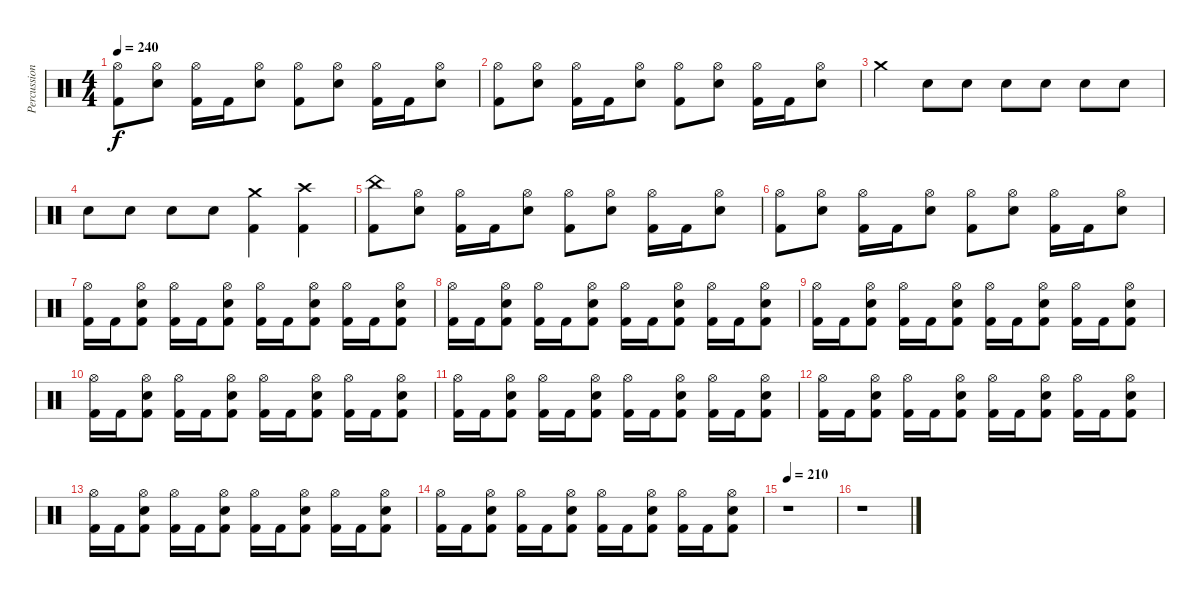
\track ("Percussion" "Percussion") {instrument percussion}
\staff {score}
\articulation defaults
\ts (4 4)
\tempo 240
\clef neutral
\ks c
("Hi-Hat (open)" "Kick (hit) 2").8{dy f} ("Hi-Hat (open)" "Electric Snare (hit)").8 ("Hi-Hat (open)" "Kick (hit) 2").16 "Kick (hit) 2".16 ("Hi-Hat (open)" "Electric Snare (hit)").8 ("Hi-Hat (open)" "Kick (hit) 2").8 ("Hi-Hat (open)" "Electric Snare (hit)").8 ("Hi-Hat (open)" "Kick (hit) 2").16 "Kick (hit) 2".16 ("Hi-Hat (open)" "Electric Snare (hit)").8 |
("Hi-Hat (open)" "Kick (hit) 2").8 ("Hi-Hat (open)" "Electric Snare (hit)").8 ("Hi-Hat (open)" "Kick (hit) 2").16 "Kick (hit) 2".16 ("Hi-Hat (open)" "Electric Snare (hit)").8 ("Hi-Hat (open)" "Kick (hit) 2").8 ("Hi-Hat (open)" "Electric Snare (hit)").8 ("Hi-Hat (open)" "Kick (hit) 2").16 "Kick (hit) 2".16 ("Hi-Hat (open)" "Electric Snare (hit)").8 |
"Crash medium (hit)".4 "Electric Snare (hit)".8 "Electric Snare (hit)".8 "Electric Snare (hit)".8 "Electric Snare (hit)".8 "Electric Snare (hit)".8 "Electric Snare (hit)".8 |
"Electric Snare (hit)".8 "Electric Snare (hit)".8 "Electric Snare (hit)".8 "Electric Snare (hit)".8 ("Crash medium (hit)" "Kick (hit) 2").4 ("Crash high (hit)" "Kick (hit) 2").4 |
("China (hit)" "Kick (hit) 2").8 ("Hi-Hat (open)" "Electric Snare (hit)").8 ("Hi-Hat (open)" "Kick (hit) 2").16 "Kick (hit) 2".16 ("Hi-Hat (open)" "Electric Snare (hit)").8 ("Hi-Hat (open)" "Kick (hit) 2").8 ("Hi-Hat (open)" "Electric Snare (hit)").8 ("Hi-Hat (open)" "Kick (hit) 2").16 "Kick (hit) 2".16 ("Hi-Hat (open)" "Electric Snare (hit)").8 |
("Hi-Hat (open)" "Kick (hit) 2").8 ("Hi-Hat (open)" "Electric Snare (hit)").8 ("Hi-Hat (open)" "Kick (hit) 2").16 "Kick (hit) 2".16 ("Hi-Hat (open)" "Electric Snare (hit)").8 ("Hi-Hat (open)" "Kick (hit) 2").8 ("Hi-Hat (open)" "Electric Snare (hit)").8 ("Hi-Hat (open)" "Kick (hit) 2").16 "Kick (hit) 2".16 ("Hi-Hat (open)" "Electric Snare (hit)").8 |
("Hi-Hat (open)" "Kick (hit) 2").16 "Kick (hit) 2".16 ("Hi-Hat (open)" "Electric Snare (hit)" "Kick (hit) 2").8 ("Hi-Hat (open)" "Kick (hit) 2").16 "Kick (hit) 2".16 ("Hi-Hat (open)" "Electric Snare (hit)" "Kick (hit) 2").8 ("Hi-Hat (open)" "Kick (hit) 2").16 "Kick (hit) 2".16 ("Hi-Hat (open)" "Electric Snare (hit)" "Kick (hit) 2").8 ("Hi-Hat (open)" "Kick (hit) 2").16 "Kick (hit) 2".16 ("Hi-Hat (open)" "Electric Snare (hit)" "Kick (hit) 2").8 |
("Hi-Hat (open)" "Kick (hit) 2").16 "Kick (hit) 2".16 ("Hi-Hat (open)" "Electric Snare (hit)" "Kick (hit) 2").8 ("Hi-Hat (open)" "Kick (hit) 2").16 "Kick (hit) 2".16 ("Hi-Hat (open)" "Electric Snare (hit)" "Kick (hit) 2").8 ("Hi-Hat (open)" "Kick (hit) 2").16 "Kick (hit) 2".16 ("Hi-Hat (open)" "Electric Snare (hit)" "Kick (hit) 2").8 ("Hi-Hat (open)" "Kick (hit) 2").16 "Kick (hit) 2".16 ("Hi-Hat (open)" "Electric Snare (hit)" "Kick (hit) 2").8 |
("Hi-Hat (open)" "Kick (hit) 2").16 "Kick (hit) 2".16 ("Hi-Hat (open)" "Electric Snare (hit)" "Kick (hit) 2").8 ("Hi-Hat (open)" "Kick (hit) 2").16 "Kick (hit) 2".16 ("Hi-Hat (open)" "Electric Snare (hit)" "Kick (hit) 2").8 ("Hi-Hat (open)" "Kick (hit) 2").16 "Kick (hit) 2".16 ("Hi-Hat (open)" "Electric Snare (hit)" "Kick (hit) 2").8 ("Hi-Hat (open)" "Kick (hit) 2").16 "Kick (hit) 2".16 ("Hi-Hat (open)" "Electric Snare (hit)" "Kick (hit) 2").8 |
("Hi-Hat (open)" "Kick (hit) 2").16 "Kick (hit) 2".16 ("Hi-Hat (open)" "Electric Snare (hit)" "Kick (hit) 2").8 ("Hi-Hat (open)" "Kick (hit) 2").16 "Kick (hit) 2".16 ("Hi-Hat (open)" "Electric Snare (hit)" "Kick (hit) 2").8 ("Hi-Hat (open)" "Kick (hit) 2").16 "Kick (hit) 2".16 ("Hi-Hat (open)" "Electric Snare (hit)" "Kick (hit) 2").8 ("Hi-Hat (open)" "Kick (hit) 2").16 "Kick (hit) 2".16 ("Hi-Hat (open)" "Electric Snare (hit)" "Kick (hit) 2").8 |
("Hi-Hat (open)" "Kick (hit) 2").16 "Kick (hit) 2".16 ("Hi-Hat (open)" "Electric Snare (hit)" "Kick (hit) 2").8 ("Hi-Hat (open)" "Kick (hit) 2").16 "Kick (hit) 2".16 ("Hi-Hat (open)" "Electric Snare (hit)" "Kick (hit) 2").8 ("Hi-Hat (open)" "Kick (hit) 2").16 "Kick (hit) 2".16 ("Hi-Hat (open)" "Electric Snare (hit)" "Kick (hit) 2").8 ("Hi-Hat (open)" "Kick (hit) 2").16 "Kick (hit) 2".16 ("Hi-Hat (open)" "Electric Snare (hit)" "Kick (hit) 2").8 |
("Hi-Hat (open)" "Kick (hit) 2").16 "Kick (hit) 2".16 ("Hi-Hat (open)" "Electric Snare (hit)" "Kick (hit) 2").8 ("Hi-Hat (open)" "Kick (hit) 2").16 "Kick (hit) 2".16 ("Hi-Hat (open)" "Electric Snare (hit)" "Kick (hit) 2").8 ("Hi-Hat (open)" "Kick (hit) 2").16 "Kick (hit) 2".16 ("Hi-Hat (open)" "Electric Snare (hit)" "Kick (hit) 2").8 ("Hi-Hat (open)" "Kick (hit) 2").16 "Kick (hit) 2".16 ("Hi-Hat (open)" "Electric Snare (hit)" "Kick (hit) 2").8 |
("Hi-Hat (open)" "Kick (hit) 2").16 "Kick (hit) 2".16 ("Hi-Hat (open)" "Electric Snare (hit)" "Kick (hit) 2").8 ("Hi-Hat (open)" "Kick (hit) 2").16 "Kick (hit) 2".16 ("Hi-Hat (open)" "Electric Snare (hit)" "Kick (hit) 2").8 ("Hi-Hat (open)" "Kick (hit) 2").16 "Kick (hit) 2".16 ("Hi-Hat (open)" "Electric Snare (hit)" "Kick (hit) 2").8 ("Hi-Hat (open)" "Kick (hit) 2").16 "Kick (hit) 2".16 ("Hi-Hat (open)" "Electric Snare (hit)" "Kick (hit) 2").8 |
("Hi-Hat (open)" "Kick (hit) 2").16 "Kick (hit) 2".16 ("Hi-Hat (open)" "Electric Snare (hit)" "Kick (hit) 2").8 ("Hi-Hat (open)" "Kick (hit) 2").16 "Kick (hit) 2".16 ("Hi-Hat (open)" "Electric Snare (hit)" "Kick (hit) 2").8 ("Hi-Hat (open)" "Kick (hit) 2").16 "Kick (hit) 2".16 ("Hi-Hat (open)" "Electric Snare (hit)" "Kick (hit) 2").8 ("Hi-Hat (open)" "Kick (hit) 2").16 "Kick (hit) 2".16 ("Hi-Hat (open)" "Electric Snare (hit)" "Kick (hit) 2").8 |
\tempo 210
r.1 |
r.1
